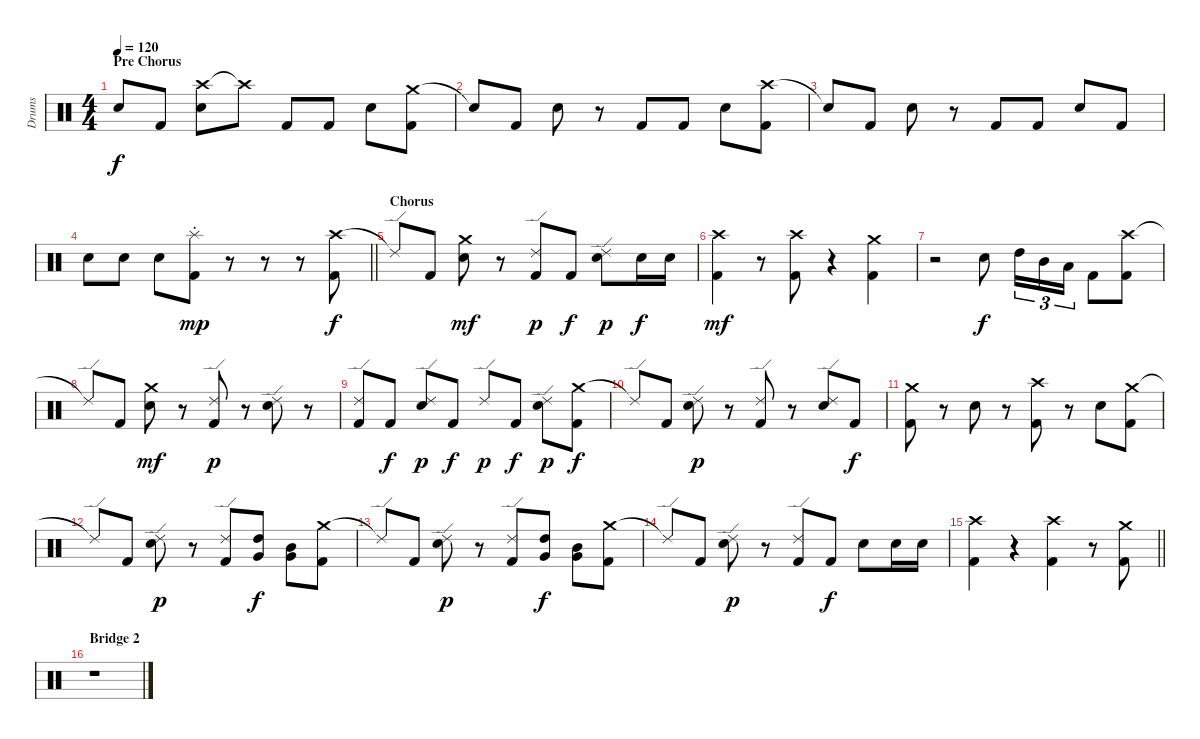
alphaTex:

\track ("Drums" "Drums") {instrument percussion}
\staff {score}
\articulation defaults
\ts (4 4)
\section ("" "Pre Chorus")
\tempo 120
\clef neutral
\ks c "Snare (hit)"{t}.8{dy f} "Kick (hit) 2".8
("Crash high (hit)" "Electric Snare (hit)").8 "Crash high (hit)"{t}.8 "Kick (hit) 2".8 "Kick (hit) 2".8 "Electric Snare (hit)".8 ("Crash medium (hit)" "Kick (hit) 2").8 |
"Snare (hit)"{t}.8 "Kick (hit) 2".8 "Electric Snare (hit)".8 r.8 "Kick (hit) 2".8 "Kick (hit) 2".8 "Electric Snare (hit)".8 ("Crash high (hit)" "Kick (hit) 2").8 |
"Snare (hit)"{t}.8 "Kick (hit) 2".8 "Electric Snare (hit)".8 r.8 "Kick (hit) 2".8 "Kick (hit) 2".8 "Electric Snare (hit)".8 "Kick (hit) 2".8 |
\barLineRight lightlight "Electric Snare (hit)".8 "Electric Snare (hit)".8 "Electric Snare (hit)".8
("Splash (hit)"{st} "Kick (hit) 2").8{dy mp} r.8 r.8 r.8 ("Crash high (hit)" "Kick (hit) 2").8{dy f} |
\section ("" "Chorus")
"Ride (edge) 2"{t}.8 "Kick (hit) 2".8 ("Crash medium (hit)" "Electric Snare (hit)").8{dy mf} r.8 ("Ride (edge) 2" "Kick (hit) 2").8{dy p} "Kick (hit) 2".8{dy f} ("Ride (edge) 2" "Electric Snare (hit)").8{dy p} "Electric Snare (hit)".16{dy f} "Electric Snare (hit)".16 |
("Crash high (hit)" "Kick (hit) 2").4{dy mf} r.8 ("Crash high (hit)" "Kick (hit) 2").8 r.4 ("Crash medium (hit)" "Kick (hit) 2").4 |
r.2 "Electric Snare (hit)".8{dy f} "High Tom (hit)".16{tu (3 2)} "Mid Tom (hit)".16{tu (3 2)} "Low Tom (hit)".16{tu (3 2)} "Kick (hit) 2".8 ("Crash high (hit)" "Kick (hit) 2").8 |
"Ride (edge) 2"{t}.8 "Kick (hit) 2".8 ("Crash medium (hit)" "Electric Snare (hit)").8{dy mf} r.8 ("Ride (edge) 2" "Kick (hit) 2").8{dy p} r.8 ("Ride (edge) 2" "Electric Snare (hit)").8 r.8 |
("Ride (edge) 2" "Kick (hit) 2").8 "Kick (hit) 2".8{dy f} ("Ride (edge) 2" "Electric Snare (hit)").8{dy p} "Kick (hit) 2".8{dy f} "Ride (edge) 2".8{dy p} "Kick (hit) 2".8{dy f} ("Ride (edge) 2" "Electric Snare (hit)").8{dy p} ("Crash medium (hit)" "Kick (hit) 2").8{dy f} |
"Ride (edge) 2"{t}.8 "Kick (hit) 2".8 ("Ride (edge) 2" "Electric Snare (hit)").8{dy p} r.8 ("Ride (edge) 2" "Kick (hit) 2").8 r.8 ("Ride (edge) 2" "Electric Snare (hit)").8 "Kick (hit) 2".8{dy f} |
("Crash medium (hit)" "Kick (hit) 2").8 r.8 "Electric Snare (hit)".8 r.8 ("Crash high (hit)" "Kick (hit) 2").8 r.8 "Electric Snare (hit)".8 ("Crash medium (hit)" "Kick (hit) 2").8 |
"Ride (edge) 2"{t}.8 "Kick (hit) 2".8 ("Ride (edge) 2" "Electric Snare (hit)").8{dy p} r.8 ("Ride (edge) 2" "Kick (hit) 2").8 ("High Tom (hit)" "Very Low Tom (hit)").8{dy f} ("Mid Tom (hit)" "Very Low Tom (hit)").8 ("Crash medium (hit)" "Kick (hit) 2").8 |
"Ride (edge) 2"{t}.8 "Kick (hit) 2".8 ("Ride (edge) 2" "Electric Snare (hit)").8{dy p} r.8 ("Ride (edge) 2" "Kick (hit) 2").8 ("High Tom (hit)" "Very Low Tom (hit)").8{dy f} ("Mid Tom (hit)" "Very Low Tom (hit)").8 ("Crash medium (hit)" "Kick (hit) 2").8 |
"Ride (edge) 2"{t}.8 "Kick (hit) 2".8 ("Ride (edge) 2" "Electric Snare (hit)").8{dy p} r.8 ("Ride (edge) 2" "Kick (hit) 2").8 "Kick (hit) 2".8{dy f} "Electric Snare (hit)".8 "Electric Snare (hit)".16 "Electric Snare (hit)".16 |
\barLineRight lightlight
("Crash high (hit)" "Kick (hit) 2").4 r.4 ("Crash high (hit)" "Kick (hit) 2").4 r.8 ("Crash medium (hit)" "Kick (hit) 2").8 |
\section ("" "Bridge 2")
r.1
